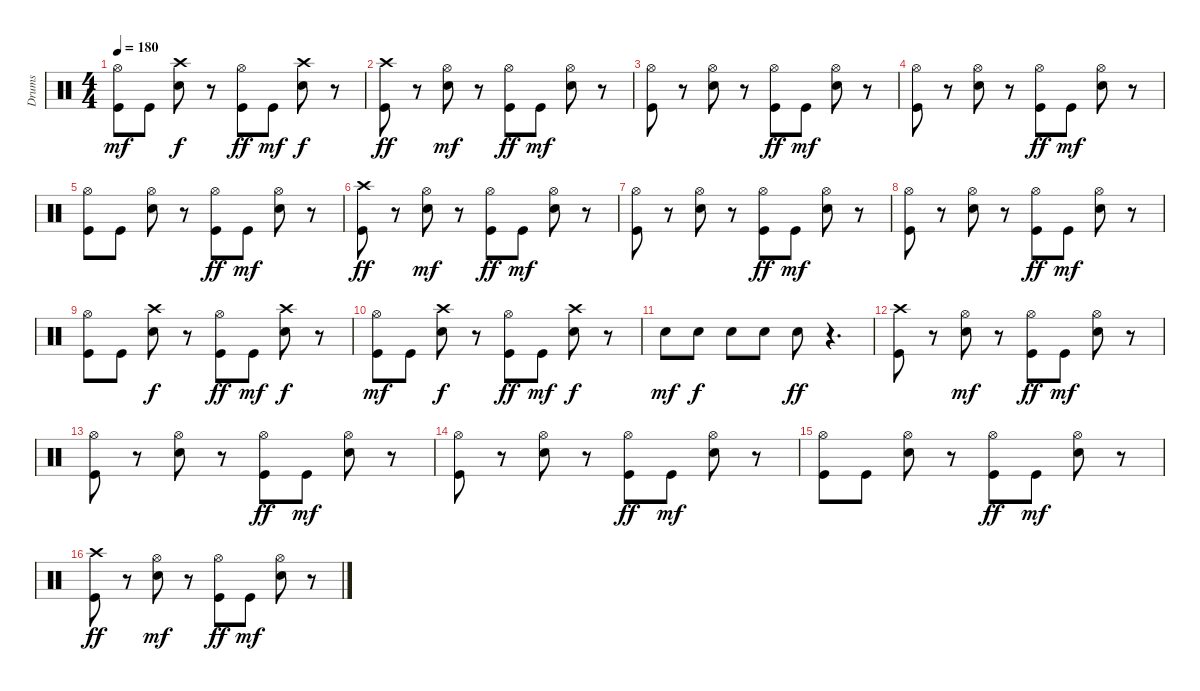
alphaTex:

\track ("Drums" "Drums") {instrument percussion}
\staff {score}
\articulation defaults
\ts (4 4)
\tempo 180
\clef neutral
\ks c
("Kick (hit)" "Hi-Hat (open)").8{dy mf} "Kick (hit)".8 ("Crash high (hit)" "Snare (hit) 2").8{dy f} r.8 ("Hi-Hat (open)" "Kick (hit)").8{dy ff} "Kick (hit)".8{dy mf} ("Crash high (hit)" "Snare (hit) 2").8{dy f} r.8 |
("Crash high (hit)" "Kick (hit)").8{dy ff} r.8 ("Hi-Hat (open)" "Snare (hit) 2").8{dy mf} r.8 ("Hi-Hat (open)" "Kick (hit)").8{dy ff} "Kick (hit)".8{dy mf} ("Hi-Hat (open)" "Snare (hit) 2").8 r.8 |
("Kick (hit)" "Hi-Hat (open)").8 r.8 ("Hi-Hat (open)" "Snare (hit) 2").8 r.8 ("Hi-Hat (open)" "Kick (hit)").8{dy ff} "Kick (hit)".8{dy mf} ("Snare (hit) 2" "Hi-Hat (open)").8 r.8 |
("Kick (hit)" "Hi-Hat (open)").8 r.8 ("Hi-Hat (open)" "Snare (hit) 2").8 r.8 ("Hi-Hat (open)" "Kick (hit)").8{dy ff} "Kick (hit)".8{dy mf} ("Snare (hit) 2" "Hi-Hat (open)").8 r.8 |
("Kick (hit)" "Hi-Hat (open)").8 "Kick (hit)".8 ("Hi-Hat (open)" "Snare (hit) 2").8 r.8 ("Hi-Hat (open)" "Kick (hit)").8{dy ff} "Kick (hit)".8{dy mf} ("Hi-Hat (open)" "Snare (hit) 2").8 r.8 |
("Crash high (hit)" "Kick (hit)").8{dy ff} r.8 ("Hi-Hat (open)" "Snare (hit) 2").8{dy mf} r.8 ("Hi-Hat (open)" "Kick (hit)").8{dy ff} "Kick (hit)".8{dy mf} ("Hi-Hat (open)" "Snare (hit) 2").8 r.8 |
("Kick (hit)" "Hi-Hat (open)").8 r.8 ("Hi-Hat (open)" "Snare (hit) 2").8 r.8 ("Hi-Hat (open)" "Kick (hit)").8{dy ff} "Kick (hit)".8{dy mf} ("Snare (hit) 2" "Hi-Hat (open)").8 r.8 |
("Kick (hit)" "Hi-Hat (open)").8 r.8 ("Hi-Hat (open)" "Snare (hit) 2").8 r.8 ("Hi-Hat (open)" "Kick (hit)").8{dy ff} "Kick (hit)".8{dy mf} ("Snare (hit) 2" "Hi-Hat (open)").8 r.8 |
("Kick (hit)" "Hi-Hat (open)").8 "Kick (hit)".8 ("Crash high (hit)" "Snare (hit) 2").8{dy f} r.8 ("Hi-Hat (open)" "Kick (hit)").8{dy ff} "Kick (hit)".8{dy mf} ("Crash high (hit)" "Snare (hit) 2").8{dy f} r.8 |
("Kick (hit)" "Hi-Hat (open)").8{dy mf} "Kick (hit)".8 ("Crash high (hit)" "Snare (hit) 2").8{dy f} r.8 ("Hi-Hat (open)" "Kick (hit)").8{dy ff} "Kick (hit)".8{dy mf} ("Crash high (hit)" "Snare (hit) 2").8{dy f} r.8 |
"Snare (hit) 2".8{dy mf} "Snare (hit) 2".8{dy f} "Snare (hit) 2".8 "Snare (hit) 2".8 "Snare (hit) 2".8{dy ff} r.4{d} |
("Crash high (hit)" "Kick (hit)").8 r.8 ("Hi-Hat (open)" "Snare (hit) 2").8{dy mf} r.8 ("Hi-Hat (open)" "Kick (hit)").8{dy ff} "Kick (hit)".8{dy mf} ("Hi-Hat (open)" "Snare (hit) 2").8 r.8 |
("Kick (hit)" "Hi-Hat (open)").8 r.8 ("Hi-Hat (open)" "Snare (hit) 2").8 r.8 ("Hi-Hat (open)" "Kick (hit)").8{dy ff} "Kick (hit)".8{dy mf} ("Snare (hit) 2" "Hi-Hat (open)").8 r.8 |
("Kick (hit)" "Hi-Hat (open)").8 r.8 ("Hi-Hat (open)" "Snare (hit) 2").8 r.8 ("Hi-Hat (open)" "Kick (hit)").8{dy ff} "Kick (hit)".8{dy mf} ("Snare (hit) 2" "Hi-Hat (open)").8 r.8 |
("Kick (hit)" "Hi-Hat (open)").8 "Kick (hit)".8 ("Hi-Hat (open)" "Snare (hit) 2").8 r.8 ("Hi-Hat (open)" "Kick (hit)").8{dy ff} "Kick (hit)".8{dy mf} ("Hi-Hat (open)" "Snare (hit) 2").8 r.8 |
("Crash high (hit)" "Kick (hit)").8{dy ff} r.8 ("Hi-Hat (open)" "Snare (hit) 2").8{dy mf} r.8 ("Hi-Hat (open)" "Kick (hit)").8{dy ff} "Kick (hit)".8{dy mf} ("Hi-Hat (open)" "Snare (hit) 2").8 r.8
